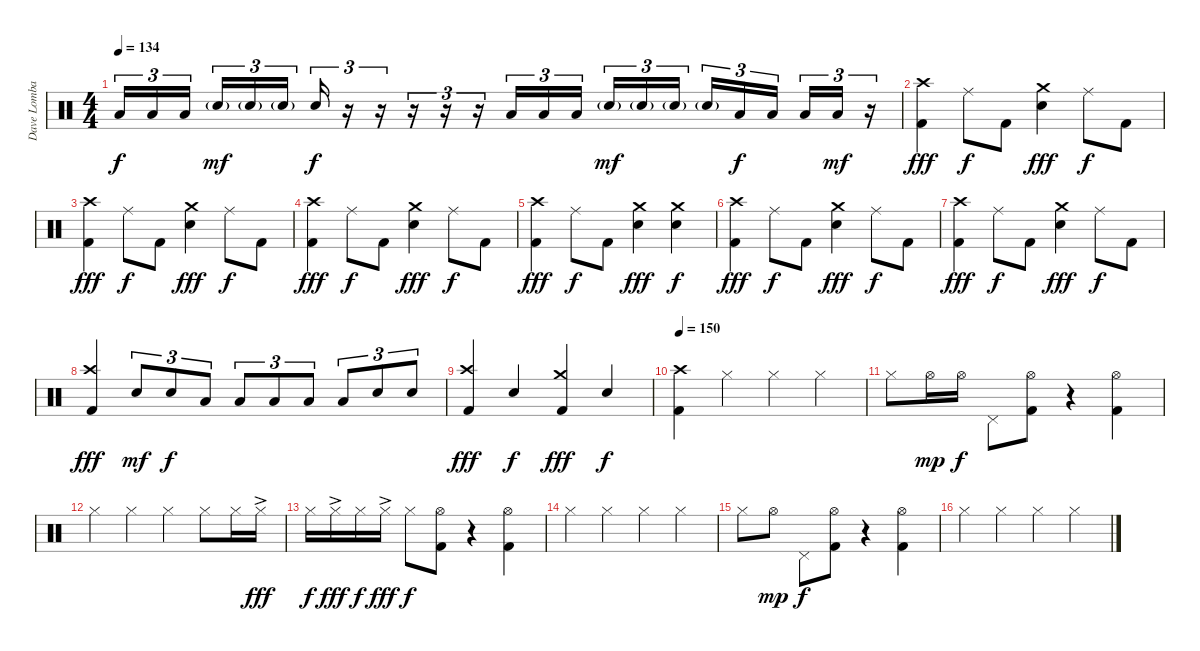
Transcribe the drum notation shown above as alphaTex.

\track ("Dave Lombardo (Drums)" "Dave Lomba") {instrument percussion}
\staff {score}
\articulation defaults
\ts (4 4)
\tempo 134
\clef neutral
\ks c "Low Tom (hit)".16{tu (3 2) dy f} "Low Tom (hit)".16{tu (3 2)} "Low Tom (hit)".16{tu (3 2) beam splitsecondary} "Snare (hit) 2"{g}.16{tu (3 2) dy mf beam Up} "Snare (hit) 2"{g}.16{tu (3 2) beam Up} "Snare (hit) 2"{g}.16{tu (3 2) beam Up} "Snare (hit) 2".16{tu (3 2) dy f beam Up}
r.16{tu (3 2)} r.16{tu (3 2)} r.16{tu (3 2)} r.16{tu (3 2)} r.16{tu (3 2)} "Low Tom (hit)".16{tu (3 2)} "Low Tom (hit)".16{tu (3 2)} "Low Tom (hit)".16{tu (3 2) beam splitsecondary} "Snare (hit) 2"{g}.16{tu (3 2) dy mf beam Up} "Snare (hit) 2"{g}.16{tu (3 2) beam Up} "Snare (hit) 2"{g}.16{tu (3 2) beam Up} "Snare (hit) 2"{g}.16{tu (3 2)} "Low Tom (hit)".16{tu (3 2) dy f beam Up} "Low Tom (hit)".16{tu (3 2) beam splitsecondary} "Low Tom (hit)".16{tu (3 2)} "Low Tom (hit)".16{tu (3 2) dy mf} r.16{tu (3 2)} |
("Crash high (hit)" "Kick (hit) 2").4{dy fff} "Ride (middle)".8{dy f} "Kick (hit) 2".8 ("Crash medium (hit)" "Electric Snare (hit)").4{dy fff} "Ride (middle)".8{dy f} "Kick (hit) 2".8 |
("Crash high (hit)" "Kick (hit) 2").4{dy fff} "Ride (middle)".8{dy f} "Kick (hit) 2".8 ("Crash medium (hit)" "Electric Snare (hit)").4{dy fff} "Ride (middle)".8{dy f} "Kick (hit) 2".8 |
("Crash high (hit)" "Kick (hit) 2").4{dy fff} "Ride (middle)".8{dy f} "Kick (hit) 2".8 ("Crash medium (hit)" "Electric Snare (hit)").4{dy fff} "Ride (middle)".8{dy f} "Kick (hit) 2".8 |
("Crash high (hit)" "Kick (hit) 2").4{dy fff} "Ride (middle)".8{dy f} "Kick (hit) 2".8 ("Crash medium (hit)" "Electric Snare (hit)").4{dy fff} ("Crash medium (hit)" "Electric Snare (hit)").4{dy f} |
("Crash high (hit)" "Kick (hit) 2").4{dy fff} "Ride (middle)".8{dy f} "Kick (hit) 2".8 ("Crash medium (hit)" "Electric Snare (hit)").4{dy fff} "Ride (middle)".8{dy f} "Kick (hit) 2".8 |
("Crash high (hit)" "Kick (hit) 2").4{dy fff} "Ride (middle)".8{dy f} "Kick (hit) 2".8 ("Crash medium (hit)" "Electric Snare (hit)").4{dy fff} "Ride (middle)".8{dy f} "Kick (hit) 2".8 |
("Crash high (hit)" "Kick (hit) 2").4{dy fff beam Up} "Electric Snare (hit)".8{tu (3 2) dy mf beam Up} "Electric Snare (hit)".8{tu (3 2) dy f beam Up} "Low Tom (hit)".8{tu (3 2) beam Up} "Low Tom (hit)".8{tu (3 2)} "Low Tom (hit)".8{tu (3 2)} "Low Tom (hit)".8{tu (3 2)} "Low Tom (hit)".8{tu (3 2) beam Up} "Electric Snare (hit)".8{tu (3 2) beam Up} "Electric Snare (hit)".8{tu (3 2) beam Up} |
("Crash high (hit)" "Kick (hit) 2").4{dy fff beam Up} "Electric Snare (hit)".4{dy f beam Up} ("Crash medium (hit)" "Kick (hit) 2").4{dy fff beam Up} "Electric Snare (hit)".4{dy f beam Up} |
\tempo 150
("Crash high (hit)" "Kick (hit) 2").4 "Hi-Hat (closed)".4 "Hi-Hat (closed)".4 "Hi-Hat (closed)".4 |
"Hi-Hat (closed)".8 "Hi-Hat (open)".16{dy mp} "Hi-Hat (open)".16{dy f} "Pedal Hi-Hat (hit)".8 ("Hi-Hat (open)" "Kick (hit) 2").8 r.4 ("Hi-Hat (open)" "Kick (hit) 2").4 |
"Hi-Hat (closed)".4 "Hi-Hat (closed)".4 "Hi-Hat (closed)".4 "Hi-Hat (closed)".8 "Hi-Hat (closed)".16 "Hi-Hat (closed)"{ac}.16{dy fff} |
"Hi-Hat (closed)".16{dy f} "Hi-Hat (closed)"{ac}.16{dy fff} "Hi-Hat (closed)".16{dy f} "Hi-Hat (closed)"{ac}.16{dy fff} "Hi-Hat (closed)".8{dy f} ("Hi-Hat (open)" "Kick (hit) 2").8 r.4 ("Hi-Hat (open)" "Kick (hit) 2").4 |
"Hi-Hat (closed)".4 "Hi-Hat (closed)".4 "Hi-Hat (closed)".4 "Hi-Hat (closed)".4 |
"Hi-Hat (closed)".8 "Hi-Hat (open)".8{dy mp} "Pedal Hi-Hat (hit)".8{dy f} ("Hi-Hat (open)" "Kick (hit) 2").8 r.4 ("Hi-Hat (open)" "Kick (hit) 2").4 |
"Hi-Hat (closed)".4 "Hi-Hat (closed)".4 "Hi-Hat (closed)".4 "Hi-Hat (closed)".4
